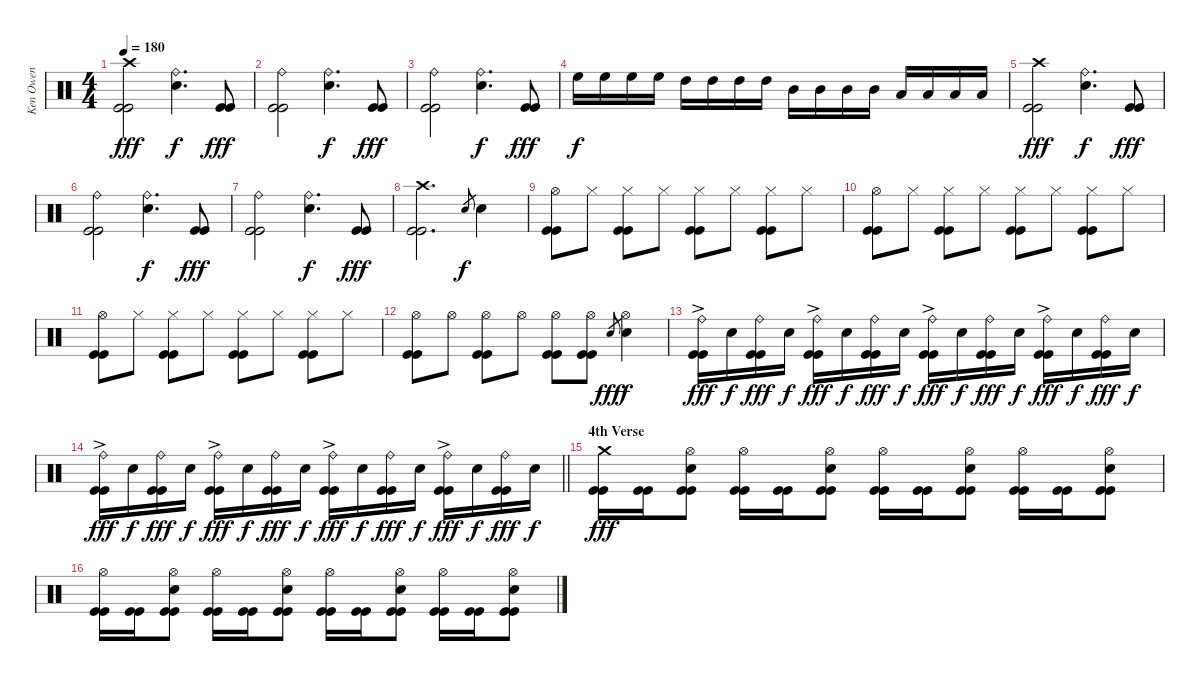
\track ("Ken Owen" "Ken Owen") {instrument percussion}
\staff {score}
\articulation defaults
\ts (4 4)
\tempo 180
\clef neutral
\ks c
("Crash high (hit)" "Kick (hit)" "Kick (hit)").2{dy fff} ("Ride (bell)" "Snare (hit) 2").4{d dy f} ("Kick (hit)" "Kick (hit)").8{dy fff} |
("Ride (bell)" "Kick (hit)" "Kick (hit)").2 ("Ride (bell)" "Snare (hit) 2").4{d dy f} ("Kick (hit)" "Kick (hit)").8{dy fff} |
("Ride (bell)" "Kick (hit)" "Kick (hit)").2 ("Ride (bell)" "Snare (hit) 2").4{d dy f} ("Kick (hit)" "Kick (hit)").8{dy fff} |
"High Floor Tom (hit)".16{dy f} "High Floor Tom (hit)".16 "High Floor Tom (hit)".16 "High Floor Tom (hit)".16 "High Tom (hit)".16 "High Tom (hit)".16 "High Tom (hit)".16 "High Tom (hit)".16 "Mid Tom (hit)".16 "Mid Tom (hit)".16 "Mid Tom (hit)".16 "Mid Tom (hit)".16 "Low Tom (hit)".16 "Low Tom (hit)".16 "Low Tom (hit)".16 "Low Tom (hit)".16 |
("Crash high (hit)" "Kick (hit)" "Kick (hit)").2{dy fff} ("Ride (bell)" "Snare (hit) 2").4{d dy f} ("Kick (hit)" "Kick (hit)").8{dy fff} |
("Ride (bell)" "Kick (hit)" "Kick (hit)").2 ("Ride (bell)" "Snare (hit) 2").4{d dy f} ("Kick (hit)" "Kick (hit)").8{dy fff} |
("Ride (bell)" "Kick (hit)" "Kick (hit)").2 ("Ride (bell)" "Snare (hit) 2").4{d dy f} ("Kick (hit)" "Kick (hit)").8{dy fff} |
("Crash high (hit)" "Kick (hit)" "Kick (hit)").2{d} "Snare (hit) 2".8{gr dy f} "Snare (hit) 2".4 |
("Hi-Hat (open)"{tr (46 64)} "Kick (hit)" "Kick (hit)").8 "Hi-Hat (closed)"{tr (42 32)}.8 ("Hi-Hat (closed)"{tr (42 32)} "Kick (hit)" "Kick (hit)").8 "Hi-Hat (closed)"{tr (42 32)}.8 ("Hi-Hat (closed)"{tr (42 32)} "Kick (hit)" "Kick (hit)").8 "Hi-Hat (closed)"{tr (42 32)}.8 ("Hi-Hat (closed)"{tr (42 32)} "Kick (hit)" "Kick (hit)").8 "Hi-Hat (closed)"{tr (42 32)}.8 |
("Hi-Hat (open)"{tr (46 64)} "Kick (hit)" "Kick (hit)").8 "Hi-Hat (closed)"{tr (42 32)}.8 ("Hi-Hat (closed)"{tr (42 32)} "Kick (hit)" "Kick (hit)").8 "Hi-Hat (closed)"{tr (42 32)}.8 ("Hi-Hat (closed)"{tr (42 32)} "Kick (hit)" "Kick (hit)").8 "Hi-Hat (closed)"{tr (42 32)}.8 ("Hi-Hat (closed)"{tr (42 32)} "Kick (hit)" "Kick (hit)").8 "Hi-Hat (closed)"{tr (42 32)}.8 |
("Hi-Hat (open)"{tr (46 64)} "Kick (hit)" "Kick (hit)").8 "Hi-Hat (closed)"{tr (42 32)}.8 ("Hi-Hat (closed)"{tr (42 32)} "Kick (hit)" "Kick (hit)").8 "Hi-Hat (closed)"{tr (42 32)}.8 ("Hi-Hat (closed)"{tr (42 32)} "Kick (hit)" "Kick (hit)").8 "Hi-Hat (closed)"{tr (42 32)}.8 ("Hi-Hat (closed)"{tr (42 32)} "Kick (hit)" "Kick (hit)").8 "Hi-Hat (closed)"{tr (42 32)}.8 |
("Hi-Hat (open)"{tr (46 32)} "Kick (hit)" "Kick (hit)").8 "Hi-Hat (open)"{tr (46 32)}.8 ("Hi-Hat (open)"{tr (46 32)} "Kick (hit)" "Kick (hit)").8 "Hi-Hat (open)"{tr (46 32)}.8 ("Hi-Hat (open)"{tr (46 32)} "Kick (hit)" "Kick (hit)").8 ("Hi-Hat (open)"{tr (46 32)} "Kick (hit)" "Kick (hit)").8 "Snare (hit) 2".8{gr dy fff} ("Hi-Hat (open)" "Snare (hit) 2").4{dy f} |
("Ride (bell)"{ac} "Kick (hit)" "Kick (hit)").16{dy fff} "Snare (hit) 2".16{dy f} ("Ride (bell)" "Kick (hit)" "Kick (hit)").16{dy fff} "Snare (hit) 2".16{dy f} ("Ride (bell)"{ac} "Kick (hit)" "Kick (hit)").16{dy fff} "Snare (hit) 2".16{dy f} ("Ride (bell)" "Kick (hit)" "Kick (hit)").16{dy fff} "Snare (hit) 2".16{dy f} ("Ride (bell)"{ac} "Kick (hit)" "Kick (hit)").16{dy fff} "Snare (hit) 2".16{dy f} ("Ride (bell)" "Kick (hit)" "Kick (hit)").16{dy fff} "Snare (hit) 2".16{dy f} ("Ride (bell)"{ac} "Kick (hit)" "Kick (hit)").16{dy fff} "Snare (hit) 2".16{dy f} ("Ride (bell)" "Kick (hit)" "Kick (hit)").16{dy fff} "Snare (hit) 2".16{dy f} |
\barLineRight lightlight
("Ride (bell)"{ac} "Kick (hit)" "Kick (hit)").16{dy fff} "Snare (hit) 2".16{dy f} ("Ride (bell)" "Kick (hit)" "Kick (hit)").16{dy fff} "Snare (hit) 2".16{dy f} ("Ride (bell)"{ac} "Kick (hit)" "Kick (hit)").16{dy fff} "Snare (hit) 2".16{dy f} ("Ride (bell)" "Kick (hit)" "Kick (hit)").16{dy fff} "Snare (hit) 2".16{dy f} ("Ride (bell)"{ac} "Kick (hit)" "Kick (hit)").16{dy fff} "Snare (hit) 2".16{dy f} ("Ride (bell)" "Kick (hit)" "Kick (hit)").16{dy fff} "Snare (hit) 2".16{dy f} ("Ride (bell)"{ac} "Kick (hit)" "Kick (hit)").16{dy fff} "Snare (hit) 2".16{dy f} ("Ride (bell)" "Kick (hit)" "Kick (hit)").16{dy fff} "Snare (hit) 2".16{dy f} |
\section ("" "4th Verse")
("Crash medium (hit)" "Kick (hit)" "Kick (hit)").16{dy fff} ("Kick (hit)" "Kick (hit)").16 ("Hi-Hat (open)" "Snare (hit) 2" "Kick (hit)" "Kick (hit)").8 ("Hi-Hat (open)" "Kick (hit)" "Kick (hit)").16 ("Kick (hit)" "Kick (hit)").16 ("Hi-Hat (open)" "Snare (hit) 2" "Kick (hit)" "Kick (hit)").8 ("Hi-Hat (open)" "Kick (hit)" "Kick (hit)").16 ("Kick (hit)" "Kick (hit)").16 ("Hi-Hat (open)" "Snare (hit) 2" "Kick (hit)" "Kick (hit)").8 ("Hi-Hat (open)" "Kick (hit)" "Kick (hit)").16 ("Kick (hit)" "Kick (hit)").16 ("Hi-Hat (open)" "Snare (hit) 2" "Kick (hit)" "Kick (hit)").8 |
("Hi-Hat (open)" "Kick (hit)" "Kick (hit)").16 ("Kick (hit)" "Kick (hit)").16 ("Hi-Hat (open)" "Snare (hit) 2" "Kick (hit)" "Kick (hit)").8 ("Hi-Hat (open)" "Kick (hit)" "Kick (hit)").16 ("Kick (hit)" "Kick (hit)").16 ("Hi-Hat (open)" "Snare (hit) 2" "Kick (hit)" "Kick (hit)").8 ("Hi-Hat (open)" "Kick (hit)" "Kick (hit)").16 ("Kick (hit)" "Kick (hit)").16 ("Hi-Hat (open)" "Snare (hit) 2" "Kick (hit)" "Kick (hit)").8 ("Hi-Hat (open)" "Kick (hit)" "Kick (hit)").16 ("Kick (hit)" "Kick (hit)").16 ("Hi-Hat (open)" "Snare (hit) 2" "Kick (hit)" "Kick (hit)").8
